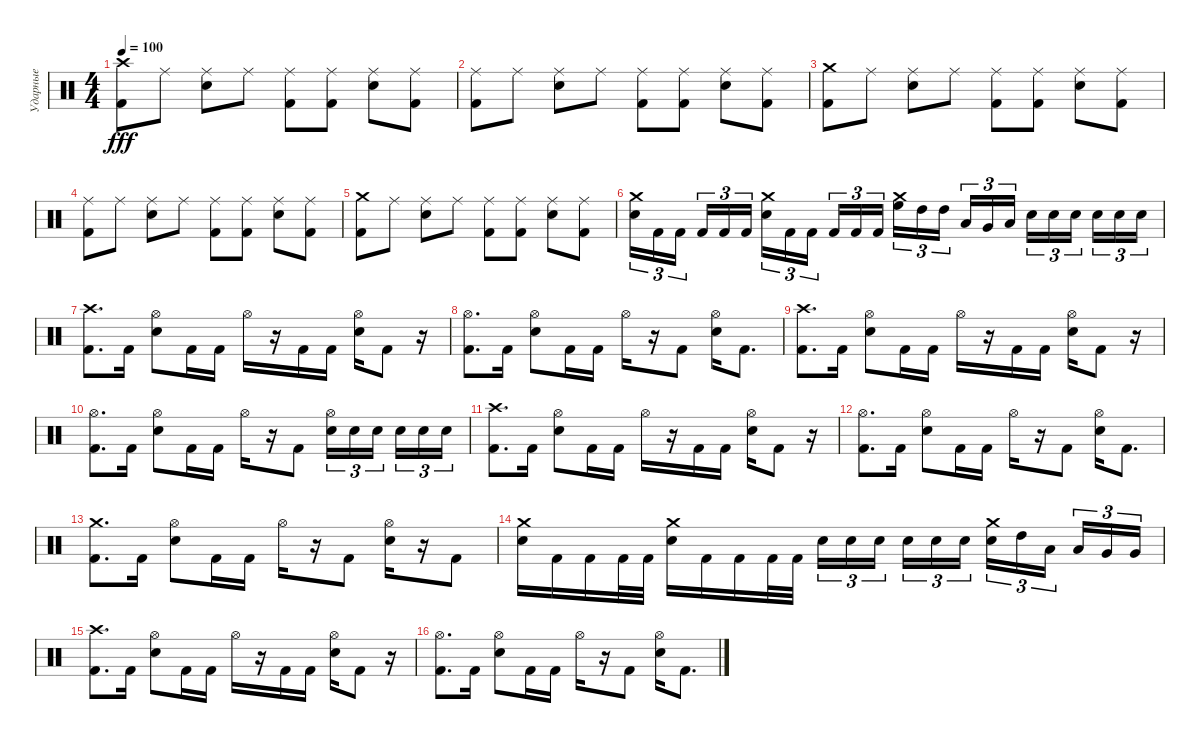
\track ("Ударные" "Ударные") {instrument percussion}
\staff {score}
\articulation defaults
\ts (4 4)
\tempo 100
\clef neutral
\ks c
("Kick (hit) 2" "Crash high (hit)").8{dy fff} "Ride (middle)".8 ("Electric Snare (hit)" "Ride (middle)").8 "Ride (middle)".8 ("Kick (hit) 2" "Ride (middle)").8 ("Kick (hit) 2" "Ride (middle)").8 ("Electric Snare (hit)" "Ride (middle)").8 ("Kick (hit) 2" "Ride (middle)").8 |
("Kick (hit) 2" "Ride (middle)").8 "Ride (middle)".8 ("Electric Snare (hit)" "Ride (middle)").8 "Ride (middle)".8 ("Kick (hit) 2" "Ride (middle)").8 ("Kick (hit) 2" "Ride (middle)").8 ("Electric Snare (hit)" "Ride (middle)").8 ("Kick (hit) 2" "Ride (middle)").8 |
("Kick (hit) 2" "Crash medium (hit)").8 "Ride (middle)".8 ("Electric Snare (hit)" "Ride (middle)").8 "Ride (middle)".8 ("Kick (hit) 2" "Ride (middle)").8 ("Kick (hit) 2" "Ride (middle)").8 ("Electric Snare (hit)" "Ride (middle)").8 ("Kick (hit) 2" "Ride (middle)").8 |
("Kick (hit) 2" "Ride (middle)").8 "Ride (middle)".8 ("Electric Snare (hit)" "Ride (middle)").8 "Ride (middle)".8 ("Kick (hit) 2" "Ride (middle)").8 ("Kick (hit) 2" "Ride (middle)").8 ("Electric Snare (hit)" "Ride (middle)").8 ("Kick (hit) 2" "Ride (middle)").8 |
("Kick (hit) 2" "Crash medium (hit)").8 "Ride (middle)".8 ("Electric Snare (hit)" "Ride (middle)").8 "Ride (middle)".8 ("Kick (hit) 2" "Ride (middle)").8 ("Kick (hit) 2" "Ride (middle)").8 ("Electric Snare (hit)" "Ride (middle)").8 ("Kick (hit) 2" "Ride (middle)").8 |
("Electric Snare (hit)" "Crash medium (hit)").16{tu (3 2)} "Kick (hit) 2".16{tu (3 2)} "Kick (hit) 2".16{tu (3 2) beam splitsecondary} "Kick (hit) 2".16{tu (3 2)} "Kick (hit) 2".16{tu (3 2)} "Kick (hit) 2".16{tu (3 2)} ("Electric Snare (hit)" "Crash medium (hit)").16{tu (3 2)} "Kick (hit) 2".16{tu (3 2)} "Kick (hit) 2".16{tu (3 2) beam splitsecondary} "Kick (hit) 2".16{tu (3 2)} "Kick (hit) 2".16{tu (3 2)} "Kick (hit) 2".16{tu (3 2)} ("High Floor Tom (hit)" "Crash medium (hit)").16{tu (3 2)} "High Tom (hit)".16{tu (3 2)} "High Tom (hit)".16{tu (3 2) beam splitsecondary} "Low Tom (hit)".16{tu (3 2)} "Very Low Tom (hit)".16{tu (3 2)} "Low Floor Tom (hit)".16{tu (3 2)} "Electric Snare (hit)".16{tu (3 2)} "Electric Snare (hit)".16{tu (3 2)} "Electric Snare (hit)".16{tu (3 2) beam splitsecondary} "Electric Snare (hit)".16{tu (3 2)} "Electric Snare (hit)".16{tu (3 2)} "Electric Snare (hit)".16{tu (3 2)} |
("Kick (hit) 2" "Crash high (hit)").8{d} "Kick (hit) 2".16 ("Electric Snare (hit)" "Hi-Hat (open)").8 "Kick (hit) 2".16 "Kick (hit) 2".16 "Hi-Hat (open)".16 r.16 "Kick (hit) 2".16 "Kick (hit) 2".16 ("Electric Snare (hit)" "Hi-Hat (open)").16 "Kick (hit) 2".8 r.16 |
("Kick (hit) 2" "Hi-Hat (open)").8{d} "Kick (hit) 2".16 ("Electric Snare (hit)" "Hi-Hat (open)").8 "Kick (hit) 2".16 "Kick (hit) 2".16 "Hi-Hat (open)".16 r.16 "Kick (hit) 2".8 ("Electric Snare (hit)" "Hi-Hat (open)").16 "Kick (hit) 2".8{d} |
("Kick (hit) 2" "Crash high (hit)").8{d} "Kick (hit) 2".16 ("Electric Snare (hit)" "Hi-Hat (open)").8 "Kick (hit) 2".16 "Kick (hit) 2".16 "Hi-Hat (open)".16 r.16 "Kick (hit) 2".16 "Kick (hit) 2".16 ("Electric Snare (hit)" "Hi-Hat (open)").16 "Kick (hit) 2".8 r.16 |
("Kick (hit) 2" "Hi-Hat (open)").8{d} "Kick (hit) 2".16 ("Electric Snare (hit)" "Hi-Hat (open)").8 "Kick (hit) 2".16 "Kick (hit) 2".16 "Hi-Hat (open)".16 r.16 "Kick (hit) 2".8 ("Electric Snare (hit)" "Hi-Hat (open)").16{tu (3 2)} "Electric Snare (hit)".16{tu (3 2)} "Electric Snare (hit)".16{tu (3 2) beam splitsecondary} "Electric Snare (hit)".16{tu (3 2)} "Electric Snare (hit)".16{tu (3 2)} "Electric Snare (hit)".16{tu (3 2)} |
("Kick (hit) 2" "Crash high (hit)").8{d} "Kick (hit) 2".16 ("Electric Snare (hit)" "Hi-Hat (open)").8 "Kick (hit) 2".16 "Kick (hit) 2".16 "Hi-Hat (open)".16 r.16 "Kick (hit) 2".16 "Kick (hit) 2".16 ("Electric Snare (hit)" "Hi-Hat (open)").16 "Kick (hit) 2".8 r.16 |
("Kick (hit) 2" "Hi-Hat (open)").8{d} "Kick (hit) 2".16 ("Electric Snare (hit)" "Hi-Hat (open)").8 "Kick (hit) 2".16 "Kick (hit) 2".16 "Hi-Hat (open)".16 r.16 "Kick (hit) 2".8 ("Electric Snare (hit)" "Hi-Hat (open)").16 "Kick (hit) 2".8{d} |
("Kick (hit) 2" "Crash medium (hit)").8{d} "Kick (hit) 2".16 ("Electric Snare (hit)" "Hi-Hat (open)").8 "Kick (hit) 2".16 "Kick (hit) 2".16 "Hi-Hat (open)".16 r.16 "Kick (hit) 2".8 ("Electric Snare (hit)" "Hi-Hat (open)").16 r.16 "Kick (hit) 2".8 |
("Electric Snare (hit)" "Crash medium (hit)").16 "Kick (hit) 2".16 "Kick (hit) 2".16 "Kick (hit) 2".32 "Kick (hit) 2".32 ("Electric Snare (hit)" "Crash medium (hit)").16 "Kick (hit) 2".16 "Kick (hit) 2".16 "Kick (hit) 2".32 "Kick (hit) 2".32 "Electric Snare (hit)".16{tu (3 2)} "Electric Snare (hit)".16{tu (3 2)} "Electric Snare (hit)".16{tu (3 2) beam splitsecondary} "Electric Snare (hit)".16{tu (3 2)} "Electric Snare (hit)".16{tu (3 2)} "Electric Snare (hit)".16{tu (3 2)} ("Electric Snare (hit)" "Crash medium (hit)").16{tu (3 2)} "High Tom (hit)".16{tu (3 2)} "Low Tom (hit)".16{tu (3 2) beam splitsecondary} "Low Tom (hit)".16{tu (3 2)} "Very Low Tom (hit)".16{tu (3 2)} "Very Low Tom (hit)".16{tu (3 2)} |
("Kick (hit) 2" "Crash high (hit)").8{d} "Kick (hit) 2".16 ("Electric Snare (hit)" "Hi-Hat (open)").8 "Kick (hit) 2".16 "Kick (hit) 2".16 "Hi-Hat (open)".16 r.16 "Kick (hit) 2".16 "Kick (hit) 2".16 ("Electric Snare (hit)" "Hi-Hat (open)").16 "Kick (hit) 2".8 r.16 |
("Kick (hit) 2" "Hi-Hat (open)").8{d} "Kick (hit) 2".16 ("Electric Snare (hit)" "Hi-Hat (open)").8 "Kick (hit) 2".16 "Kick (hit) 2".16 "Hi-Hat (open)".16 r.16 "Kick (hit) 2".8 ("Electric Snare (hit)" "Hi-Hat (open)").16 "Kick (hit) 2".8{d}
